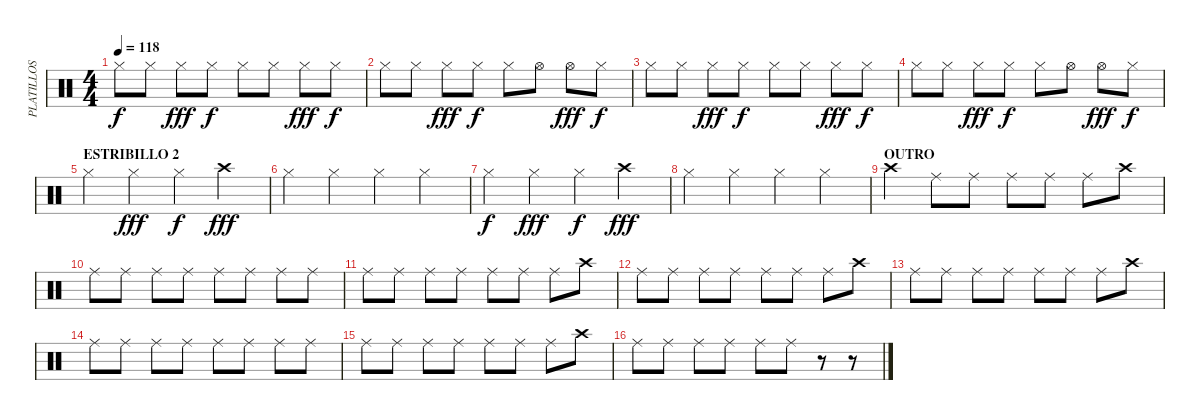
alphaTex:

\track ("PLATILLOS" "PLATILLOS") {instrument percussion}
\staff {score}
\articulation defaults
\ts (4 4)
\tempo 118
\clef neutral
\ks c "Hi-Hat (closed)".8{dy f} "Hi-Hat (closed)".8 "Hi-Hat (closed)".8{dy fff} "Hi-Hat (closed)".8{dy f} "Hi-Hat (closed)".8 "Hi-Hat (closed)".8 "Hi-Hat (closed)".8{dy fff} "Hi-Hat (closed)".8{dy f}
|
"Hi-Hat (closed)".8 "Hi-Hat (closed)".8 "Hi-Hat (closed)".8{dy fff} "Hi-Hat (closed)".8{dy f} "Hi-Hat (closed)".8 "Hi-Hat (open)".8 "Hi-Hat (open)".8{dy fff} "Hi-Hat (closed)".8{dy f} |
"Hi-Hat (closed)".8 "Hi-Hat (closed)".8 "Hi-Hat (closed)".8{dy fff} "Hi-Hat (closed)".8{dy f} "Hi-Hat (closed)".8 "Hi-Hat (closed)".8 "Hi-Hat (closed)".8{dy fff} "Hi-Hat (closed)".8{dy f} |
"Hi-Hat (closed)".8 "Hi-Hat (closed)".8 "Hi-Hat (closed)".8{dy fff} "Hi-Hat (closed)".8{dy f} "Hi-Hat (closed)".8 "Hi-Hat (open)".8 "Hi-Hat (open)".8{dy fff} "Hi-Hat (closed)".8{dy f} |
\section ("" "ESTRIBILLO 2")
"Hi-Hat (closed)".4 "Hi-Hat (closed)".4{dy fff} "Hi-Hat (closed)".4{dy f} "Crash high (hit)".4{dy fff} |
"Hi-Hat (closed)".4 "Hi-Hat (closed)".4 "Hi-Hat (closed)".4 "Hi-Hat (closed)".4 |
"Hi-Hat (closed)".4{dy f} "Hi-Hat (closed)".4{dy fff} "Hi-Hat (closed)".4{dy f} "Crash high (hit)".4{dy fff} |
"Hi-Hat (closed)".4 "Hi-Hat (closed)".4 "Hi-Hat (closed)".4 "Hi-Hat (closed)".4 |
\section ("" "OUTRO")
"Crash high (hit)".4 "Ride (middle)".8 "Ride (middle)".8 "Ride (middle)".8 "Ride (middle)".8 "Ride (middle)".8 "Crash high (hit)".8 |
"Ride (middle)".8 "Ride (middle)".8 "Ride (middle)".8 "Ride (middle)".8 "Ride (middle)".8 "Ride (middle)".8 "Ride (middle)".8 "Ride (middle)".8 |
"Ride (middle)".8 "Ride (middle)".8 "Ride (middle)".8 "Ride (middle)".8 "Ride (middle)".8 "Ride (middle)".8 "Ride (middle)".8 "Crash high (hit)".8 |
"Ride (middle)".8 "Ride (middle)".8 "Ride (middle)".8 "Ride (middle)".8 "Ride (middle)".8 "Ride (middle)".8 "Ride (middle)".8 "Crash high (hit)".8 |
"Ride (middle)".8 "Ride (middle)".8 "Ride (middle)".8 "Ride (middle)".8 "Ride (middle)".8 "Ride (middle)".8 "Ride (middle)".8 "Crash high (hit)".8 |
"Ride (middle)".8 "Ride (middle)".8 "Ride (middle)".8 "Ride (middle)".8 "Ride (middle)".8 "Ride (middle)".8 "Ride (middle)".8 "Ride (middle)".8 |
"Ride (middle)".8 "Ride (middle)".8 "Ride (middle)".8 "Ride (middle)".8 "Ride (middle)".8 "Ride (middle)".8 "Ride (middle)".8 "Crash high (hit)".8 |
"Ride (middle)".8 "Ride (middle)".8 "Ride (middle)".8 "Ride (middle)".8 "Ride (middle)".8 "Ride (middle)".8 r.8 r.8
